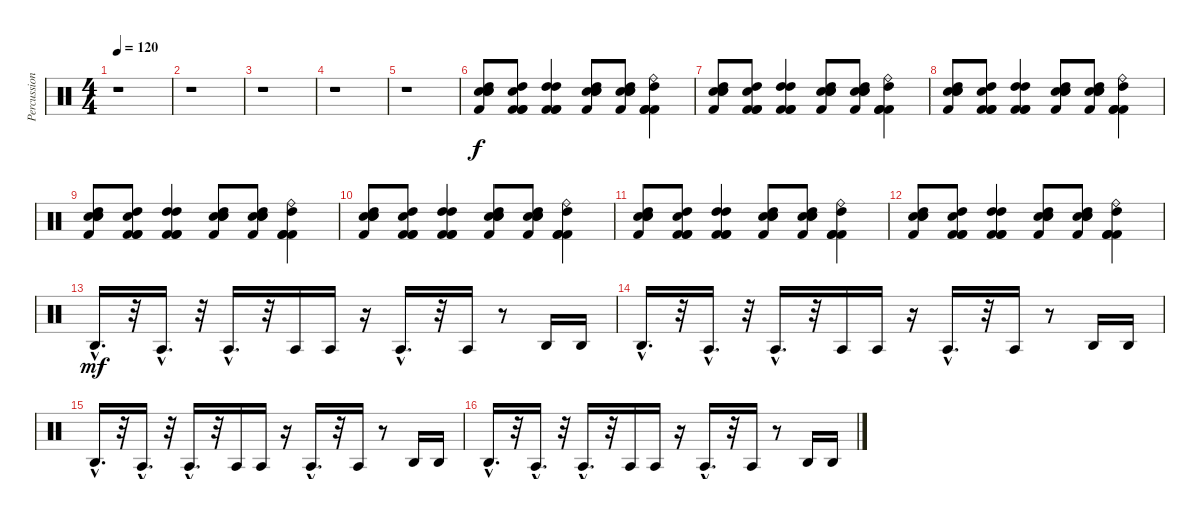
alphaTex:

\track ("Percussion" "Percussion") {instrument percussion}
\staff {score}
\articulation defaults
\ts (4 4)
\tempo 120
\clef neutral
\ks c
r.1{dy f} |
r.1 |
r.1 |
r.1 |
r.1 |
("High Tom (hit)" "Hand Clap (hit)" "Hand Clap (hit)" "Hand Clap (hit)" "Kick (hit) 2").8 ("High Tom (hit)" "Hand Clap (hit)" "Kick (hit) 2" "Kick (hit) 2" "Kick (hit) 2").8 ("High Tom (hit)" "High Tom (hit)" "Kick (hit) 2" "Kick (hit) 2" "Kick (hit) 2").4 ("High Tom (hit)" "Hand Clap (hit)" "Hand Clap (hit)" "Hand Clap (hit)" "Kick (hit) 2").8 ("High Tom (hit)" "Hand Clap (hit)" "Hand Clap (hit)" "Hand Clap (hit)" "Kick (hit) 2").8 ("High Tom (hit)" "Ride (bell)" "Kick (hit) 2" "Kick (hit) 2" "Kick (hit) 2").4 |
("High Tom (hit)" "Hand Clap (hit)" "Hand Clap (hit)" "Hand Clap (hit)" "Kick (hit) 2").8 ("High Tom (hit)" "Hand Clap (hit)" "Kick (hit) 2" "Kick (hit) 2" "Kick (hit) 2").8 ("High Tom (hit)" "High Tom (hit)" "Kick (hit) 2" "Kick (hit) 2" "Kick (hit) 2").4 ("High Tom (hit)" "Hand Clap (hit)" "Hand Clap (hit)" "Hand Clap (hit)" "Kick (hit) 2").8 ("High Tom (hit)" "Hand Clap (hit)" "Hand Clap (hit)" "Hand Clap (hit)" "Kick (hit) 2").8 ("High Tom (hit)" "Ride (bell)" "Kick (hit) 2" "Kick (hit) 2" "Kick (hit) 2").4 |
("High Tom (hit)" "Hand Clap (hit)" "Hand Clap (hit)" "Hand Clap (hit)" "Kick (hit) 2").8 ("High Tom (hit)" "Hand Clap (hit)" "Kick (hit) 2" "Kick (hit) 2" "Kick (hit) 2").8 ("High Tom (hit)" "High Tom (hit)" "Kick (hit) 2" "Kick (hit) 2" "Kick (hit) 2").4 ("High Tom (hit)" "Hand Clap (hit)" "Hand Clap (hit)" "Hand Clap (hit)" "Kick (hit) 2").8 ("High Tom (hit)" "Hand Clap (hit)" "Hand Clap (hit)" "Hand Clap (hit)" "Kick (hit) 2").8 ("High Tom (hit)" "Ride (bell)" "Kick (hit) 2" "Kick (hit) 2" "Kick (hit) 2").4 |
("High Tom (hit)" "Hand Clap (hit)" "Hand Clap (hit)" "Hand Clap (hit)" "Kick (hit) 2").8 ("High Tom (hit)" "Hand Clap (hit)" "Kick (hit) 2" "Kick (hit) 2" "Kick (hit) 2").8 ("High Tom (hit)" "High Tom (hit)" "Kick (hit) 2" "Kick (hit) 2" "Kick (hit) 2").4 ("High Tom (hit)" "Hand Clap (hit)" "Hand Clap (hit)" "Hand Clap (hit)" "Kick (hit) 2").8 ("High Tom (hit)" "Hand Clap (hit)" "Hand Clap (hit)" "Hand Clap (hit)" "Kick (hit) 2").8 ("High Tom (hit)" "Ride (bell)" "Kick (hit) 2" "Kick (hit) 2" "Kick (hit) 2").4 |
("High Tom (hit)" "Hand Clap (hit)" "Hand Clap (hit)" "Hand Clap (hit)" "Kick (hit) 2").8 ("High Tom (hit)" "Hand Clap (hit)" "Kick (hit) 2" "Kick (hit) 2" "Kick (hit) 2").8 ("High Tom (hit)" "High Tom (hit)" "Kick (hit) 2" "Kick (hit) 2" "Kick (hit) 2").4 ("High Tom (hit)" "Hand Clap (hit)" "Hand Clap (hit)" "Hand Clap (hit)" "Kick (hit) 2").8 ("High Tom (hit)" "Hand Clap (hit)" "Hand Clap (hit)" "Hand Clap (hit)" "Kick (hit) 2").8 ("High Tom (hit)" "Ride (bell)" "Kick (hit) 2" "Kick (hit) 2" "Kick (hit) 2").4 |
("High Tom (hit)" "Hand Clap (hit)" "Hand Clap (hit)" "Hand Clap (hit)" "Kick (hit) 2").8 ("High Tom (hit)" "Hand Clap (hit)" "Kick (hit) 2" "Kick (hit) 2" "Kick (hit) 2").8 ("High Tom (hit)" "High Tom (hit)" "Kick (hit) 2" "Kick (hit) 2" "Kick (hit) 2").4 ("High Tom (hit)" "Hand Clap (hit)" "Hand Clap (hit)" "Hand Clap (hit)" "Kick (hit) 2").8 ("High Tom (hit)" "Hand Clap (hit)" "Hand Clap (hit)" "Hand Clap (hit)" "Kick (hit) 2").8 ("High Tom (hit)" "Ride (bell)" "Kick (hit) 2" "Kick (hit) 2" "Kick (hit) 2").4 |
("High Tom (hit)" "Hand Clap (hit)" "Hand Clap (hit)" "Hand Clap (hit)" "Kick (hit) 2").8 ("High Tom (hit)" "Hand Clap (hit)" "Kick (hit) 2" "Kick (hit) 2" "Kick (hit) 2").8 ("High Tom (hit)" "High Tom (hit)" "Kick (hit) 2" "Kick (hit) 2" "Kick (hit) 2").4 ("High Tom (hit)" "Hand Clap (hit)" "Hand Clap (hit)" "Hand Clap (hit)" "Kick (hit) 2").8 ("High Tom (hit)" "Hand Clap (hit)" "Hand Clap (hit)" "Hand Clap (hit)" "Kick (hit) 2").8 ("High Tom (hit)" "Ride (bell)" "Kick (hit) 2" "Kick (hit) 2" "Kick (hit) 2").4 |
"Agogo high (hit)"{hac}.16{d dy mf} r.32 "Agogo tow (hit)"{hac}.16{d} r.32 "Agogo tow (hit)"{hac}.16{d} r.32 "Agogo tow (hit)".16 "Agogo tow (hit)".16 r.16 "Agogo tow (hit)"{hac}.16{d} r.32 "Agogo tow (hit)".16 r.8 "Agogo high (hit)".16 "Agogo high (hit)".16 |
"Agogo high (hit)"{hac}.16{d} r.32 "Agogo tow (hit)"{hac}.16{d} r.32 "Agogo tow (hit)"{hac}.16{d} r.32 "Agogo tow (hit)".16 "Agogo tow (hit)".16 r.16 "Agogo tow (hit)"{hac}.16{d} r.32 "Agogo tow (hit)".16 r.8 "Agogo high (hit)".16 "Agogo high (hit)".16 |
"Agogo high (hit)"{hac}.16{d} r.32 "Agogo tow (hit)"{hac}.16{d} r.32 "Agogo tow (hit)"{hac}.16{d} r.32 "Agogo tow (hit)".16 "Agogo tow (hit)".16 r.16 "Agogo tow (hit)"{hac}.16{d} r.32 "Agogo tow (hit)".16 r.8 "Agogo high (hit)".16 "Agogo high (hit)".16 |
"Agogo high (hit)"{hac}.16{d} r.32 "Agogo tow (hit)"{hac}.16{d} r.32 "Agogo tow (hit)"{hac}.16{d} r.32 "Agogo tow (hit)".16 "Agogo tow (hit)".16 r.16 "Agogo tow (hit)"{hac}.16{d} r.32 "Agogo tow (hit)".16 r.8 "Agogo high (hit)".16 "Agogo high (hit)".16
